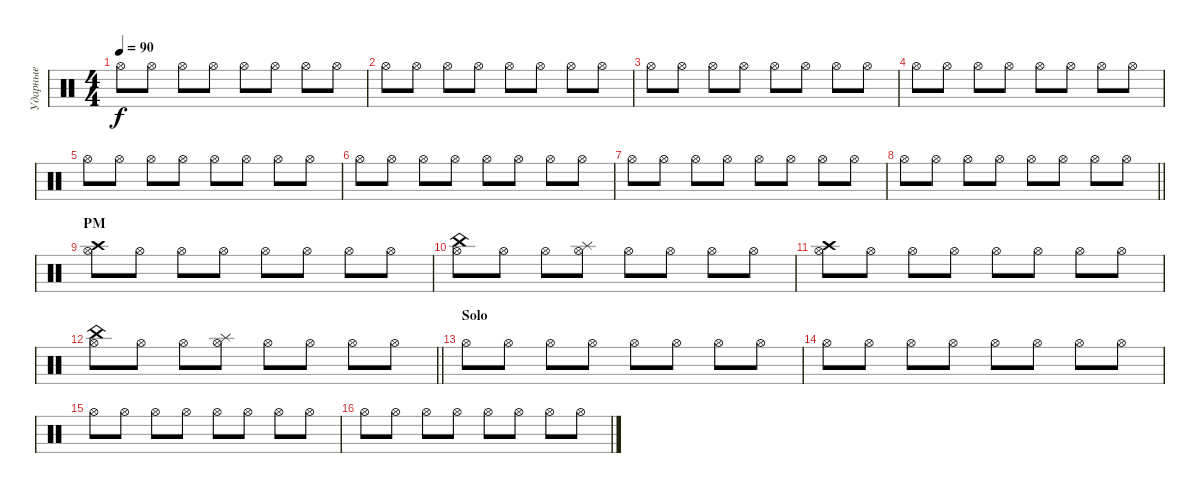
\track ("Ударные" "Ударные") {instrument percussion}
\staff {score}
\articulation defaults
\ts (4 4)
\tempo 90
\clef neutral
\ks c "Hi-Hat (open)".8{dy f} "Hi-Hat (open)".8 "Hi-Hat (open)".8 "Hi-Hat (open)".8 "Hi-Hat (open)".8 "Hi-Hat (open)".8 "Hi-Hat (open)".8 "Hi-Hat (open)".8
|
"Hi-Hat (open)".8 "Hi-Hat (open)".8 "Hi-Hat (open)".8 "Hi-Hat (open)".8 "Hi-Hat (open)".8 "Hi-Hat (open)".8 "Hi-Hat (open)".8 "Hi-Hat (open)".8 |
"Hi-Hat (open)".8 "Hi-Hat (open)".8 "Hi-Hat (open)".8 "Hi-Hat (open)".8 "Hi-Hat (open)".8 "Hi-Hat (open)".8 "Hi-Hat (open)".8 "Hi-Hat (open)".8 |
"Hi-Hat (open)".8 "Hi-Hat (open)".8 "Hi-Hat (open)".8 "Hi-Hat (open)".8 "Hi-Hat (open)".8 "Hi-Hat (open)".8 "Hi-Hat (open)".8 "Hi-Hat (open)".8 |
"Hi-Hat (open)".8 "Hi-Hat (open)".8 "Hi-Hat (open)".8 "Hi-Hat (open)".8 "Hi-Hat (open)".8 "Hi-Hat (open)".8 "Hi-Hat (open)".8 "Hi-Hat (open)".8 |
"Hi-Hat (open)".8 "Hi-Hat (open)".8 "Hi-Hat (open)".8 "Hi-Hat (open)".8 "Hi-Hat (open)".8 "Hi-Hat (open)".8 "Hi-Hat (open)".8 "Hi-Hat (open)".8 |
"Hi-Hat (open)".8 "Hi-Hat (open)".8 "Hi-Hat (open)".8 "Hi-Hat (open)".8 "Hi-Hat (open)".8 "Hi-Hat (open)".8 "Hi-Hat (open)".8 "Hi-Hat (open)".8 |
\barLineRight lightlight "Hi-Hat (open)".8 "Hi-Hat (open)".8 "Hi-Hat (open)".8 "Hi-Hat (open)".8 "Hi-Hat (open)".8 "Hi-Hat (open)".8 "Hi-Hat (open)".8 "Hi-Hat (open)".8
|
\section ("" "PM")
("Hi-Hat (open)" "Crash high (hit)").8 "Hi-Hat (open)".8 "Hi-Hat (open)".8 "Hi-Hat (open)".8 "Hi-Hat (open)".8 "Hi-Hat (open)".8 "Hi-Hat (open)".8 "Hi-Hat (open)".8 |
("Hi-Hat (open)" "China (hit)").8 "Hi-Hat (open)".8 "Hi-Hat (open)".8 ("Hi-Hat (open)" "Splash (hit)").8 "Hi-Hat (open)".8 "Hi-Hat (open)".8 "Hi-Hat (open)".8 "Hi-Hat (open)".8 |
("Hi-Hat (open)" "Crash high (hit)").8 "Hi-Hat (open)".8 "Hi-Hat (open)".8 "Hi-Hat (open)".8 "Hi-Hat (open)".8 "Hi-Hat (open)".8 "Hi-Hat (open)".8 "Hi-Hat (open)".8 |
\barLineRight lightlight
("Hi-Hat (open)" "China (hit)").8 "Hi-Hat (open)".8 "Hi-Hat (open)".8 ("Hi-Hat (open)" "Splash (hit)").8 "Hi-Hat (open)".8 "Hi-Hat (open)".8 "Hi-Hat (open)".8 "Hi-Hat (open)".8 |
\section ("" "Solo")
"Hi-Hat (open)".8 "Hi-Hat (open)".8 "Hi-Hat (open)".8 "Hi-Hat (open)".8 "Hi-Hat (open)".8 "Hi-Hat (open)".8 "Hi-Hat (open)".8 "Hi-Hat (open)".8 |
"Hi-Hat (open)".8 "Hi-Hat (open)".8 "Hi-Hat (open)".8 "Hi-Hat (open)".8 "Hi-Hat (open)".8 "Hi-Hat (open)".8 "Hi-Hat (open)".8 "Hi-Hat (open)".8 |
"Hi-Hat (open)".8 "Hi-Hat (open)".8 "Hi-Hat (open)".8 "Hi-Hat (open)".8 "Hi-Hat (open)".8 "Hi-Hat (open)".8 "Hi-Hat (open)".8 "Hi-Hat (open)".8 |
"Hi-Hat (open)".8 "Hi-Hat (open)".8 "Hi-Hat (open)".8 "Hi-Hat (open)".8 "Hi-Hat (open)".8 "Hi-Hat (open)".8 "Hi-Hat (open)".8 "Hi-Hat (open)".8
